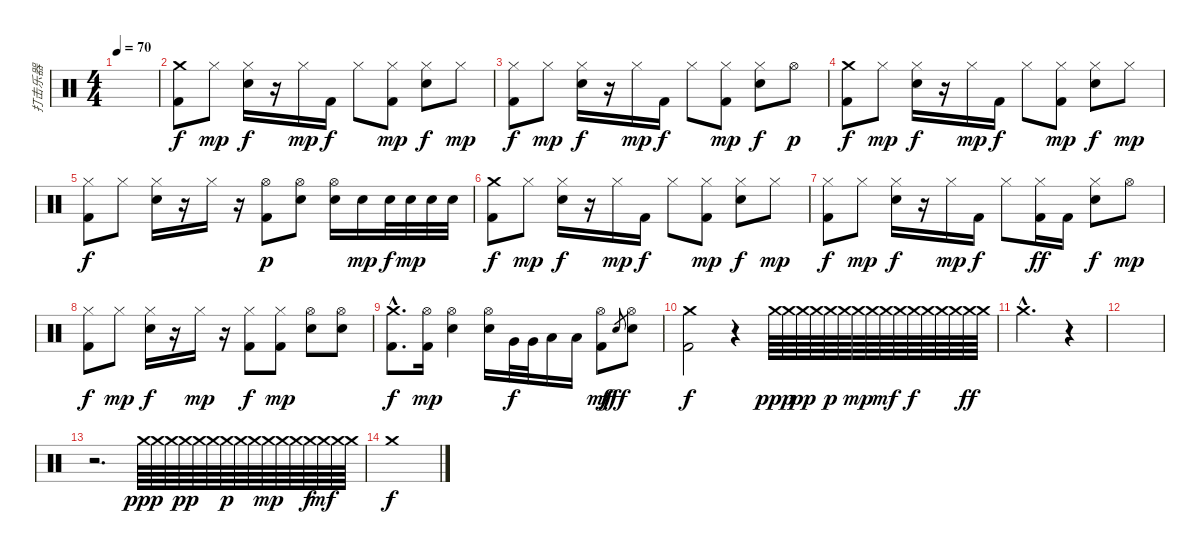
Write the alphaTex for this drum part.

\track ("打击乐器" "打击乐器") {instrument percussion}
\staff {score}
\articulation defaults
\ts (4 4)
\tempo 70
\clef neutral
\ks c
|
("Crash medium (hit)" "Kick (hit) 2").8 "Hi-Hat (closed)".8{dy mp} ("Hi-Hat (closed)" "Electric Snare (hit)").16{dy f} r.16 "Hi-Hat (closed)".16{dy mp} "Kick (hit) 2".16{dy f} "Hi-Hat (closed)".8 ("Hi-Hat (closed)" "Kick (hit) 2").8{dy mp} ("Hi-Hat (closed)" "Electric Snare (hit)").8{dy f} "Hi-Hat (closed)".8{dy mp} |
("Hi-Hat (closed)" "Kick (hit) 2").8{dy f} "Hi-Hat (closed)".8{dy mp} ("Hi-Hat (closed)" "Electric Snare (hit)").16{dy f} r.16 "Hi-Hat (closed)".16{dy mp} "Kick (hit) 2".16{dy f} "Hi-Hat (closed)".8 ("Hi-Hat (closed)" "Kick (hit) 2").8{dy mp} ("Hi-Hat (closed)" "Electric Snare (hit)").8{dy f} "Hi-Hat (open)".8{dy p} |
("Crash medium (hit)" "Kick (hit) 2").8{dy f} "Hi-Hat (closed)".8{dy mp} ("Hi-Hat (closed)" "Electric Snare (hit)").16{dy f} r.16 "Hi-Hat (closed)".16{dy mp} "Kick (hit) 2".16{dy f} "Hi-Hat (closed)".8 ("Hi-Hat (closed)" "Kick (hit) 2").8{dy mp} ("Hi-Hat (closed)" "Electric Snare (hit)").8{dy f} "Hi-Hat (closed)".8{dy mp} |
("Hi-Hat (closed)" "Kick (hit) 2").8{dy f} "Hi-Hat (closed)".8 ("Hi-Hat (closed)" "Electric Snare (hit)").16 r.16 "Hi-Hat (closed)".16 r.16 ("Hi-Hat (open)" "Kick (hit) 2").8{dy p} ("Hi-Hat (open)" "Electric Snare (hit)").8 ("Hi-Hat (open)" "Electric Snare (hit)").16 "Electric Snare (hit)".16{dy mp} "Electric Snare (hit)".32{dy f} "Electric Snare (hit)".32{dy mp} "Electric Snare (hit)".32 "Electric Snare (hit)".32 |
("Crash medium (hit)" "Kick (hit) 2").8{dy f} "Hi-Hat (closed)".8{dy mp} ("Hi-Hat (closed)" "Electric Snare (hit)").16{dy f} r.16 "Hi-Hat (closed)".16{dy mp} "Kick (hit) 2".16{dy f} "Hi-Hat (closed)".8 ("Hi-Hat (closed)" "Kick (hit) 2").8{dy mp} ("Hi-Hat (closed)" "Electric Snare (hit)").8{dy f} "Hi-Hat (closed)".8{dy mp} |
("Hi-Hat (closed)" "Kick (hit) 2").8{dy f} "Hi-Hat (closed)".8{dy mp} ("Hi-Hat (closed)" "Electric Snare (hit)").16{dy f} r.16 "Hi-Hat (closed)".16{dy mp} "Kick (hit) 2".16{dy f} "Hi-Hat (closed)".8 ("Hi-Hat (closed)" "Kick (hit) 2").16{dy ff} "Kick (hit) 2".16 ("Hi-Hat (closed)" "Electric Snare (hit)").8{dy f} "Hi-Hat (open)".8{dy mp} |
("Hi-Hat (closed)" "Kick (hit) 2").8{dy f} "Hi-Hat (closed)".8{dy mp} ("Hi-Hat (closed)" "Electric Snare (hit)").16{dy f} r.16 "Hi-Hat (closed)".16{dy mp} r.16 ("Hi-Hat (closed)" "Kick (hit) 2").8{dy f} ("Hi-Hat (closed)" "Kick (hit) 2").8{dy mp} ("Hi-Hat (open)" "Electric Snare (hit)").8 ("Hi-Hat (open)" "Electric Snare (hit)").8 |
("Crash medium (hit)"{hac} "Kick (hit) 2"{hac}).8{d dy f} ("Hi-Hat (open)" "Kick (hit) 2").16{dy mp} ("Hi-Hat (open)" "Electric Snare (hit)").4 ("Hi-Hat (open)" "Electric Snare (hit)").16 "Very Low Tom (hit)".32{dy f} "Very Low Tom (hit)".32 "Low Floor Tom (hit)".16 "Low Floor Tom (hit)".16 ("Hi-Hat (open)" "Kick (hit) 2").8{dy mf} "Electric Snare (hit)"{sl}.8{gr dy fff} ("Hi-Hat (open)" "Electric Snare (hit)").8 |
("Crash medium (hit)" "Kick (hit) 2").2{dy f} r.4 "Crash medium (hit)".64{dy ppp} "Crash medium (hit)".64 "Crash medium (hit)".64{dy pp} "Crash medium (hit)".64 "Crash medium (hit)".64{dy p} "Crash medium (hit)".64 "Crash medium (hit)".64{dy mp} "Crash medium (hit)".64 "Crash medium (hit)".64{dy mf} "Crash medium (hit)".64 "Crash medium (hit)".64{dy f} "Crash medium (hit)".64 "Crash medium (hit)".64 "Crash medium (hit)".64 "Crash medium (hit)".64{dy ff} "Crash medium (hit)".64 |
"Crash medium (hit)"{hac}.2{d} r.4 |
|
r.2{d} "Crash medium (hit)".64{dy ppp} "Crash medium (hit)".64 "Crash medium (hit)".64 "Crash medium (hit)".64{dy pp} "Crash medium (hit)".64 "Crash medium (hit)".64 "Crash medium (hit)".64{dy p} "Crash medium (hit)".64 "Crash medium (hit)".64 "Crash medium (hit)".64{dy mp} "Crash medium (hit)".64 "Crash medium (hit)".64 "Crash medium (hit)".64{dy f} "Crash medium (hit)".64{dy mf} "Crash medium (hit)".64 "Crash medium (hit)".64 |
"Crash medium (hit)".1{dy f}
